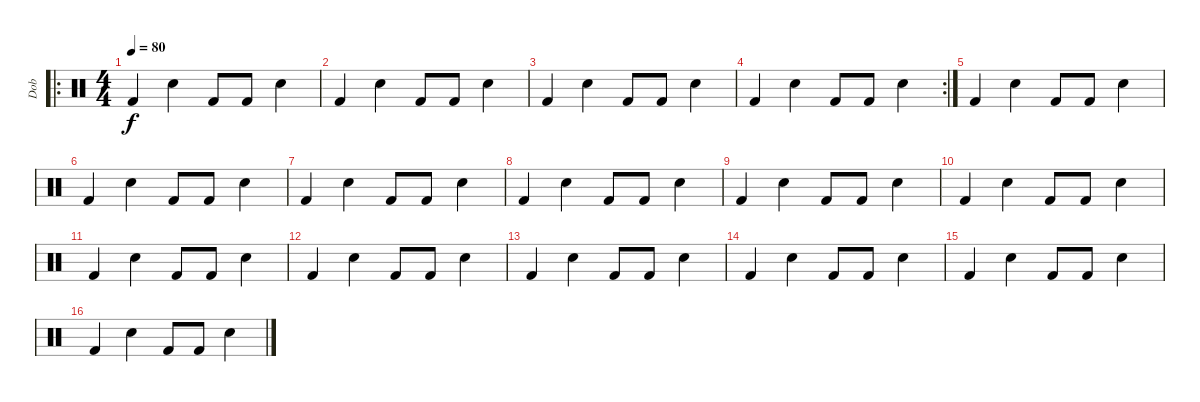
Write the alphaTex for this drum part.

\track ("Dob" "Dob") {instrument percussion}
\staff {score}
\articulation defaults
\ro
\ts (4 4)
\tempo 80
\clef neutral
\ks c "Kick (hit) 2".4{dy f} "Snare (hit) 2".4 "Kick (hit) 2".8 "Kick (hit) 2".8 "Snare (hit) 2".4
|
"Kick (hit) 2".4 "Snare (hit) 2".4 "Kick (hit) 2".8 "Kick (hit) 2".8 "Snare (hit) 2".4 |
"Kick (hit) 2".4 "Snare (hit) 2".4 "Kick (hit) 2".8 "Kick (hit) 2".8 "Snare (hit) 2".4 |
\rc 2 "Kick (hit) 2".4 "Snare (hit) 2".4 "Kick (hit) 2".8 "Kick (hit) 2".8 "Snare (hit) 2".4
|
"Kick (hit) 2".4 "Snare (hit) 2".4 "Kick (hit) 2".8 "Kick (hit) 2".8 "Snare (hit) 2".4 |
"Kick (hit) 2".4 "Snare (hit) 2".4 "Kick (hit) 2".8 "Kick (hit) 2".8 "Snare (hit) 2".4 |
"Kick (hit) 2".4 "Snare (hit) 2".4 "Kick (hit) 2".8 "Kick (hit) 2".8 "Snare (hit) 2".4 |
"Kick (hit) 2".4 "Snare (hit) 2".4 "Kick (hit) 2".8 "Kick (hit) 2".8 "Snare (hit) 2".4 |
"Kick (hit) 2".4 "Snare (hit) 2".4 "Kick (hit) 2".8 "Kick (hit) 2".8 "Snare (hit) 2".4 |
"Kick (hit) 2".4 "Snare (hit) 2".4 "Kick (hit) 2".8 "Kick (hit) 2".8 "Snare (hit) 2".4 |
"Kick (hit) 2".4 "Snare (hit) 2".4 "Kick (hit) 2".8 "Kick (hit) 2".8 "Snare (hit) 2".4 |
"Kick (hit) 2".4 "Snare (hit) 2".4 "Kick (hit) 2".8 "Kick (hit) 2".8 "Snare (hit) 2".4 |
"Kick (hit) 2".4 "Snare (hit) 2".4 "Kick (hit) 2".8 "Kick (hit) 2".8 "Snare (hit) 2".4 |
"Kick (hit) 2".4 "Snare (hit) 2".4 "Kick (hit) 2".8 "Kick (hit) 2".8 "Snare (hit) 2".4 |
"Kick (hit) 2".4 "Snare (hit) 2".4 "Kick (hit) 2".8 "Kick (hit) 2".8 "Snare (hit) 2".4 |
"Kick (hit) 2".4 "Snare (hit) 2".4 "Kick (hit) 2".8 "Kick (hit) 2".8 "Snare (hit) 2".4
